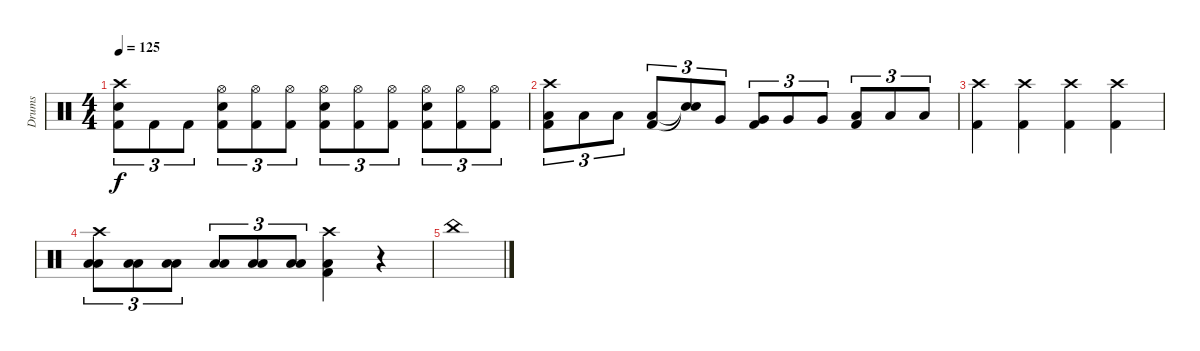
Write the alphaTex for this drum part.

\track ("Drums" "Drums") {instrument percussion}
\staff {score}
\articulation defaults
\ts (4 4)
\tempo 125
\clef neutral
\ks c
("Crash high (hit)" "Snare (hit) 2" "Kick (hit) 2").8{tu (3 2) dy f} "Kick (hit) 2".8{tu (3 2)} "Kick (hit) 2".8{tu (3 2)} ("Hi-Hat (open)" "Snare (hit) 2" "Kick (hit) 2").8{tu (3 2)} ("Hi-Hat (open)" "Kick (hit) 2").8{tu (3 2)} ("Hi-Hat (open)" "Kick (hit) 2").8{tu (3 2)} ("Hi-Hat (open)" "Snare (hit) 2" "Kick (hit) 2").8{tu (3 2)} ("Hi-Hat (open)" "Kick (hit) 2").8{tu (3 2)} ("Hi-Hat (open)" "Kick (hit) 2").8{tu (3 2)} ("Hi-Hat (open)" "Snare (hit) 2" "Kick (hit) 2").8{tu (3 2)} ("Hi-Hat (open)" "Kick (hit) 2").8{tu (3 2)} ("Hi-Hat (open)" "Kick (hit) 2").8{tu (3 2)} |
("Crash high (hit)" "Kick (hit) 2" "Low Tom (hit)").8{tu (3 2)} "Low Tom (hit)".8{tu (3 2)} "Low Tom (hit)".8{tu (3 2)} ("Kick (hit) 2" "Low Tom (hit)").8{tu (3 2)} ("Snare (hit)"{t} "Snare (hit)"{t}).8{tu (3 2)} "Very Low Tom (hit)".8{tu (3 2)} ("Kick (hit) 2" "Very Low Tom (hit)").8{tu (3 2)} "Very Low Tom (hit)".8{tu (3 2)} "Very Low Tom (hit)".8{tu (3 2)} ("Kick (hit) 2" "Low Floor Tom (hit)").8{tu (3 2)} "Low Floor Tom (hit)".8{tu (3 2)} "Low Floor Tom (hit)".8{tu (3 2)} |
("Crash high (hit)" "Kick (hit) 2").4 ("Crash high (hit)" "Kick (hit) 2").4 ("Crash high (hit)" "Kick (hit) 2").4 ("Crash high (hit)" "Kick (hit) 2").4 |
("Crash high (hit)" "Low Tom (hit)" "Low Floor Tom (hit)").8{tu (3 2)} ("Low Tom (hit)" "Low Floor Tom (hit)").8{tu (3 2)} ("Low Tom (hit)" "Low Floor Tom (hit)").8{tu (3 2)} ("Low Tom (hit)" "Low Floor Tom (hit)").8{tu (3 2)} ("Low Tom (hit)" "Low Floor Tom (hit)").8{tu (3 2)} ("Low Tom (hit)" "Low Floor Tom (hit)").8{tu (3 2)} ("Crash high (hit)" "Kick (hit) 2" "Low Floor Tom (hit)").4 r.4 |
"China (hit)".1
